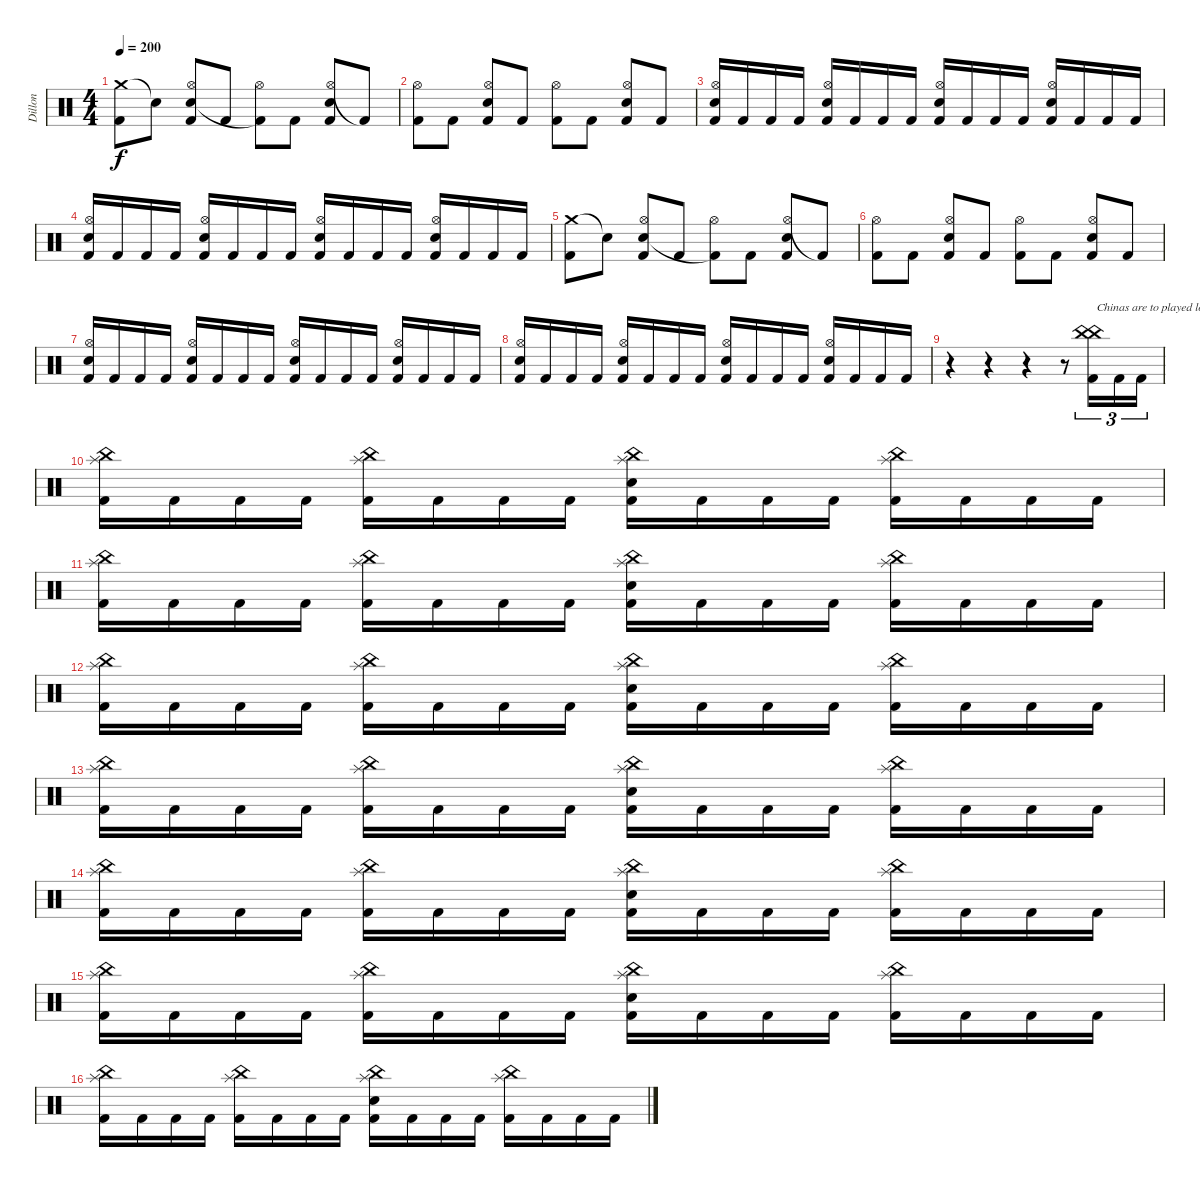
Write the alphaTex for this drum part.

\track ("Dillon" "Dillon") {instrument percussion}
\staff {score}
\articulation defaults
\ts (4 4)
\tempo 200
\clef neutral
\ks c
("Crash medium (hit)" "Kick (hit) 2").8{dy f} "Snare (hit)"{t}.8 ("Hi-Hat (open)" "Electric Snare (hit)" "Kick (hit) 2").8 "Kick (hit) 2".8 ("Hi-Hat (open)" "Kick (hit) 2"{t}).8 "Kick (hit) 2".8 ("Hi-Hat (open)" "Electric Snare (hit)" "Kick (hit) 2").8 "Kick (hit) 2"{t}.8 |
("Hi-Hat (open)" "Kick (hit) 2").8 "Kick (hit) 2".8 ("Hi-Hat (open)" "Electric Snare (hit)" "Kick (hit) 2").8 "Kick (hit) 2".8 ("Hi-Hat (open)" "Kick (hit) 2").8 "Kick (hit) 2".8 ("Hi-Hat (open)" "Electric Snare (hit)" "Kick (hit) 2").8 "Kick (hit) 2".8 |
("Hi-Hat (open)" "Electric Snare (hit)" "Kick (hit) 2").16 "Kick (hit) 2".16 "Kick (hit) 2".16 "Kick (hit) 2".16 ("Hi-Hat (open)" "Electric Snare (hit)" "Kick (hit) 2").16 "Kick (hit) 2".16 "Kick (hit) 2".16 "Kick (hit) 2".16 ("Hi-Hat (open)" "Electric Snare (hit)" "Kick (hit) 2").16 "Kick (hit) 2".16 "Kick (hit) 2".16 "Kick (hit) 2".16 ("Hi-Hat (open)" "Electric Snare (hit)" "Kick (hit) 2").16 "Kick (hit) 2".16 "Kick (hit) 2".16 "Kick (hit) 2".16 |
("Hi-Hat (open)" "Electric Snare (hit)" "Kick (hit) 2").16 "Kick (hit) 2".16 "Kick (hit) 2".16 "Kick (hit) 2".16 ("Hi-Hat (open)" "Electric Snare (hit)" "Kick (hit) 2").16 "Kick (hit) 2".16 "Kick (hit) 2".16 "Kick (hit) 2".16 ("Hi-Hat (open)" "Electric Snare (hit)" "Kick (hit) 2").16 "Kick (hit) 2".16 "Kick (hit) 2".16 "Kick (hit) 2".16 ("Hi-Hat (open)" "Electric Snare (hit)" "Kick (hit) 2").16 "Kick (hit) 2".16 "Kick (hit) 2".16 "Kick (hit) 2".16 |
("Crash medium (hit)" "Kick (hit) 2").8 "Snare (hit)"{t}.8 ("Hi-Hat (open)" "Electric Snare (hit)" "Kick (hit) 2").8 "Kick (hit) 2".8 ("Hi-Hat (open)" "Kick (hit) 2"{t}).8 "Kick (hit) 2".8 ("Hi-Hat (open)" "Electric Snare (hit)" "Kick (hit) 2").8 "Kick (hit) 2"{t}.8 |
("Hi-Hat (open)" "Kick (hit) 2").8 "Kick (hit) 2".8 ("Hi-Hat (open)" "Electric Snare (hit)" "Kick (hit) 2").8 "Kick (hit) 2".8 ("Hi-Hat (open)" "Kick (hit) 2").8 "Kick (hit) 2".8 ("Hi-Hat (open)" "Electric Snare (hit)" "Kick (hit) 2").8 "Kick (hit) 2".8 |
("Hi-Hat (open)" "Electric Snare (hit)" "Kick (hit) 2").16 "Kick (hit) 2".16 "Kick (hit) 2".16 "Kick (hit) 2".16 ("Hi-Hat (open)" "Electric Snare (hit)" "Kick (hit) 2").16 "Kick (hit) 2".16 "Kick (hit) 2".16 "Kick (hit) 2".16 ("Hi-Hat (open)" "Electric Snare (hit)" "Kick (hit) 2").16 "Kick (hit) 2".16 "Kick (hit) 2".16 "Kick (hit) 2".16 ("Hi-Hat (open)" "Electric Snare (hit)" "Kick (hit) 2").16 "Kick (hit) 2".16 "Kick (hit) 2".16 "Kick (hit) 2".16 |
("Hi-Hat (open)" "Electric Snare (hit)" "Kick (hit) 2").16 "Kick (hit) 2".16 "Kick (hit) 2".16 "Kick (hit) 2".16 ("Hi-Hat (open)" "Electric Snare (hit)" "Kick (hit) 2").16 "Kick (hit) 2".16 "Kick (hit) 2".16 "Kick (hit) 2".16 ("Hi-Hat (open)" "Electric Snare (hit)" "Kick (hit) 2").16 "Kick (hit) 2".16 "Kick (hit) 2".16 "Kick (hit) 2".16 ("Hi-Hat (open)" "Electric Snare (hit)" "Kick (hit) 2").16 "Kick (hit) 2".16 "Kick (hit) 2".16 "Kick (hit) 2".16 |
r.4 r.4 r.4 r.8 ("China (hit)" "China (hit)" "Kick (hit) 2").16{tu (3 2) txt "Chinas are to played louder"} "Kick (hit) 2".16{tu (3 2)} "Kick (hit) 2".16{tu (3 2)} |
("China (hit)" "Splash (hit)" "Kick (hit) 2").16 "Kick (hit) 2".16 "Kick (hit) 2".16 "Kick (hit) 2".16 ("China (hit)" "Splash (hit)" "Kick (hit) 2").16 "Kick (hit) 2".16 "Kick (hit) 2".16 "Kick (hit) 2".16 ("China (hit)" "Splash (hit)" "Electric Snare (hit)" "Kick (hit) 2").16 "Kick (hit) 2".16 "Kick (hit) 2".16 "Kick (hit) 2".16 ("China (hit)" "Splash (hit)" "Kick (hit) 2").16 "Kick (hit) 2".16 "Kick (hit) 2".16 "Kick (hit) 2".16 |
("China (hit)" "Splash (hit)" "Kick (hit) 2").16 "Kick (hit) 2".16 "Kick (hit) 2".16 "Kick (hit) 2".16 ("China (hit)" "Splash (hit)" "Kick (hit) 2").16 "Kick (hit) 2".16 "Kick (hit) 2".16 "Kick (hit) 2".16 ("China (hit)" "Splash (hit)" "Electric Snare (hit)" "Kick (hit) 2").16 "Kick (hit) 2".16 "Kick (hit) 2".16 "Kick (hit) 2".16 ("China (hit)" "Splash (hit)" "Kick (hit) 2").16 "Kick (hit) 2".16 "Kick (hit) 2".16 "Kick (hit) 2".16 |
("China (hit)" "Splash (hit)" "Kick (hit) 2").16 "Kick (hit) 2".16 "Kick (hit) 2".16 "Kick (hit) 2".16 ("China (hit)" "Splash (hit)" "Kick (hit) 2").16 "Kick (hit) 2".16 "Kick (hit) 2".16 "Kick (hit) 2".16 ("China (hit)" "Splash (hit)" "Electric Snare (hit)" "Kick (hit) 2").16 "Kick (hit) 2".16 "Kick (hit) 2".16 "Kick (hit) 2".16 ("China (hit)" "Splash (hit)" "Kick (hit) 2").16 "Kick (hit) 2".16 "Kick (hit) 2".16 "Kick (hit) 2".16 |
("China (hit)" "Splash (hit)" "Kick (hit) 2").16 "Kick (hit) 2".16 "Kick (hit) 2".16 "Kick (hit) 2".16 ("China (hit)" "Splash (hit)" "Kick (hit) 2").16 "Kick (hit) 2".16 "Kick (hit) 2".16 "Kick (hit) 2".16 ("China (hit)" "Splash (hit)" "Electric Snare (hit)" "Kick (hit) 2").16 "Kick (hit) 2".16 "Kick (hit) 2".16 "Kick (hit) 2".16 ("China (hit)" "Splash (hit)" "Kick (hit) 2").16 "Kick (hit) 2".16 "Kick (hit) 2".16 "Kick (hit) 2".16 |
("China (hit)" "Splash (hit)" "Kick (hit) 2").16 "Kick (hit) 2".16 "Kick (hit) 2".16 "Kick (hit) 2".16 ("China (hit)" "Splash (hit)" "Kick (hit) 2").16 "Kick (hit) 2".16 "Kick (hit) 2".16 "Kick (hit) 2".16 ("China (hit)" "Splash (hit)" "Electric Snare (hit)" "Kick (hit) 2").16 "Kick (hit) 2".16 "Kick (hit) 2".16 "Kick (hit) 2".16 ("China (hit)" "Splash (hit)" "Kick (hit) 2").16 "Kick (hit) 2".16 "Kick (hit) 2".16 "Kick (hit) 2".16 |
("China (hit)" "Splash (hit)" "Kick (hit) 2").16 "Kick (hit) 2".16 "Kick (hit) 2".16 "Kick (hit) 2".16 ("China (hit)" "Splash (hit)" "Kick (hit) 2").16 "Kick (hit) 2".16 "Kick (hit) 2".16 "Kick (hit) 2".16 ("China (hit)" "Splash (hit)" "Electric Snare (hit)" "Kick (hit) 2").16 "Kick (hit) 2".16 "Kick (hit) 2".16 "Kick (hit) 2".16 ("China (hit)" "Splash (hit)" "Kick (hit) 2").16 "Kick (hit) 2".16 "Kick (hit) 2".16 "Kick (hit) 2".16 |
("China (hit)" "Splash (hit)" "Kick (hit) 2").16 "Kick (hit) 2".16 "Kick (hit) 2".16 "Kick (hit) 2".16 ("China (hit)" "Splash (hit)" "Kick (hit) 2").16 "Kick (hit) 2".16 "Kick (hit) 2".16 "Kick (hit) 2".16 ("China (hit)" "Splash (hit)" "Electric Snare (hit)" "Kick (hit) 2").16 "Kick (hit) 2".16 "Kick (hit) 2".16 "Kick (hit) 2".16 ("China (hit)" "Splash (hit)" "Kick (hit) 2").16 "Kick (hit) 2".16 "Kick (hit) 2".16 "Kick (hit) 2".16
